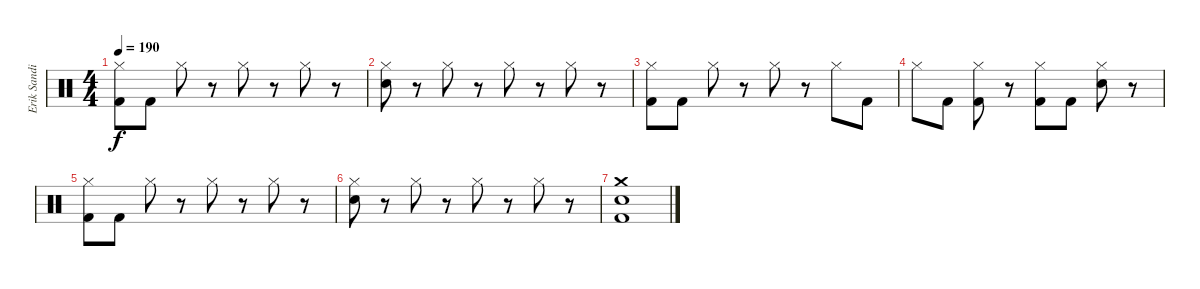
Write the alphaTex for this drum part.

\track ("Erik Sandin" "Erik Sandi") {instrument percussion}
\staff {score}
\articulation defaults
\ts (4 4)
\tempo 190
\clef neutral
\ks c
("Hi-Hat (closed)" "Kick (hit) 2").8{dy f} "Kick (hit) 2".8 "Hi-Hat (closed)".8 r.8 "Hi-Hat (closed)".8 r.8 "Hi-Hat (closed)".8 r.8 |
("Hi-Hat (closed)" "Snare (hit) 2").8 r.8 "Hi-Hat (closed)".8 r.8 "Hi-Hat (closed)".8 r.8 "Hi-Hat (closed)".8 r.8 |
("Hi-Hat (closed)" "Kick (hit) 2").8 "Kick (hit) 2".8 "Hi-Hat (closed)".8 r.8 "Hi-Hat (closed)".8 r.8 "Hi-Hat (closed)".8 "Kick (hit) 2".8 |
"Hi-Hat (closed)".8 "Kick (hit) 2".8 ("Hi-Hat (closed)" "Kick (hit) 2").8 r.8 ("Hi-Hat (closed)" "Kick (hit) 2").8 "Kick (hit) 2".8 ("Hi-Hat (closed)" "Snare (hit) 2").8 r.8 |
("Hi-Hat (closed)" "Kick (hit) 2").8 "Kick (hit) 2".8 "Hi-Hat (closed)".8 r.8 "Hi-Hat (closed)".8 r.8 "Hi-Hat (closed)".8 r.8 |
("Hi-Hat (closed)" "Snare (hit) 2").8 r.8 "Hi-Hat (closed)".8 r.8 "Hi-Hat (closed)".8 r.8 "Hi-Hat (closed)".8 r.8 |
("Crash medium (hit)" "Snare (hit) 2" "Kick (hit) 2").1
